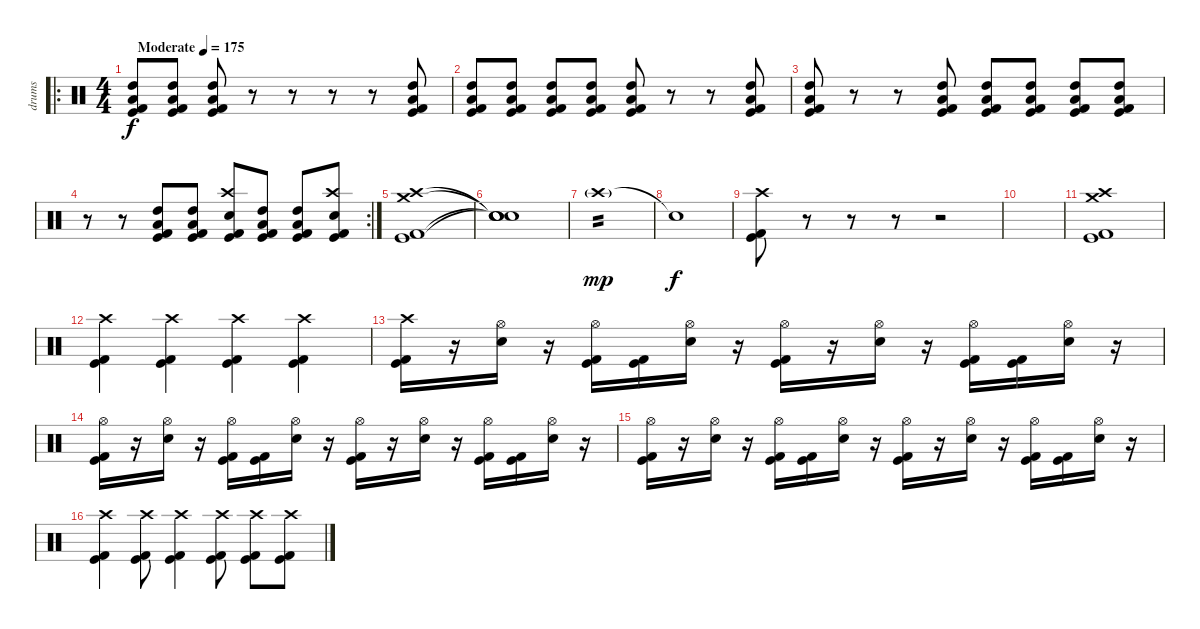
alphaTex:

\track ("drums" "drums") {instrument percussion}
\staff {score}
\articulation defaults
\ro
\ts (4 4)
\tempo (175 "Moderate")
\clef neutral
\ks c
("Low Tom (hit)" "High Tom (hit)" "Kick (hit)" "Kick (hit) 2").8{dy f} ("Low Tom (hit)" "High Tom (hit)" "Kick (hit)" "Kick (hit) 2").8 ("Low Tom (hit)" "High Tom (hit)" "Kick (hit)" "Kick (hit) 2").8 r.8 r.8 r.8 r.8 ("Low Tom (hit)" "High Tom (hit)" "Kick (hit)" "Kick (hit) 2").8 |
("Low Tom (hit)" "High Tom (hit)" "Kick (hit)" "Kick (hit) 2").8 ("Low Tom (hit)" "High Tom (hit)" "Kick (hit)" "Kick (hit) 2").8 ("Low Tom (hit)" "High Tom (hit)" "Kick (hit)" "Kick (hit) 2").8 ("Low Tom (hit)" "High Tom (hit)" "Kick (hit)" "Kick (hit) 2").8 ("Low Tom (hit)" "High Tom (hit)" "Kick (hit)" "Kick (hit) 2").8 r.8 r.8 ("Low Tom (hit)" "High Tom (hit)" "Kick (hit)" "Kick (hit) 2").8 |
("Low Tom (hit)" "High Tom (hit)" "Kick (hit)" "Kick (hit) 2").8 r.8 r.8 ("Low Tom (hit)" "High Tom (hit)" "Kick (hit)" "Kick (hit) 2").8 ("Low Tom (hit)" "High Tom (hit)" "Kick (hit)" "Kick (hit) 2").8 ("Low Tom (hit)" "High Tom (hit)" "Kick (hit)" "Kick (hit) 2").8 ("Low Tom (hit)" "High Tom (hit)" "Kick (hit)" "Kick (hit) 2").8 ("Low Tom (hit)" "High Tom (hit)" "Kick (hit)" "Kick (hit) 2").8 |
\rc 2
r.8 r.8 ("Low Tom (hit)" "High Tom (hit)" "Kick (hit)" "Kick (hit) 2").8 ("Low Tom (hit)" "High Tom (hit)" "Kick (hit)" "Kick (hit) 2").8 ("Crash high (hit)" "Electric Snare (hit)" "Kick (hit)" "Kick (hit) 2").8 ("Low Tom (hit)" "High Tom (hit)" "Kick (hit)" "Kick (hit) 2").8 ("Low Tom (hit)" "High Tom (hit)" "Kick (hit)" "Kick (hit) 2").8 ("Crash high (hit)" "Electric Snare (hit)" "Kick (hit)" "Kick (hit) 2").8 |
("Crash medium (hit)" "Crash high (hit)" "Kick (hit)" "Kick (hit) 2").1 |
("Snare (hit)"{t} "Snare (hit)"{t} "Snare (hit)"{t} "Snare (hit)"{t}).1 |
"Crash high (hit)"{g}.1{tp 2 dy mp} |
"Snare (hit)"{t}.1{dy f} |
("Crash high (hit)" "Kick (hit)" "Kick (hit) 2").8 r.8 r.8 r.8 r.2 |
|
("Crash medium (hit)" "Crash high (hit)" "Kick (hit)" "Kick (hit) 2").1 |
("Crash high (hit)" "Kick (hit)" "Kick (hit) 2").4 ("Crash high (hit)" "Kick (hit)" "Kick (hit) 2").4 ("Crash high (hit)" "Kick (hit)" "Kick (hit) 2").4 ("Crash high (hit)" "Kick (hit)" "Kick (hit) 2").4 |
("Crash high (hit)" "Kick (hit)" "Kick (hit) 2").16 r.16 ("Hi-Hat (open)" "Electric Snare (hit)").16 r.16 ("Hi-Hat (open)" "Kick (hit)" "Kick (hit) 2").16 ("Kick (hit)" "Kick (hit) 2").16 ("Hi-Hat (open)" "Electric Snare (hit)").16 r.16 ("Hi-Hat (open)" "Kick (hit)" "Kick (hit) 2").16 r.16 ("Hi-Hat (open)" "Electric Snare (hit)").16 r.16 ("Hi-Hat (open)" "Kick (hit)" "Kick (hit) 2").16 ("Kick (hit)" "Kick (hit) 2").16 ("Hi-Hat (open)" "Electric Snare (hit)").16 r.16 |
("Hi-Hat (open)" "Kick (hit)" "Kick (hit) 2").16 r.16 ("Hi-Hat (open)" "Electric Snare (hit)").16 r.16 ("Hi-Hat (open)" "Kick (hit)" "Kick (hit) 2").16 ("Kick (hit)" "Kick (hit) 2").16 ("Hi-Hat (open)" "Electric Snare (hit)").16 r.16 ("Hi-Hat (open)" "Kick (hit)" "Kick (hit) 2").16 r.16 ("Hi-Hat (open)" "Electric Snare (hit)").16 r.16 ("Hi-Hat (open)" "Kick (hit)" "Kick (hit) 2").16 ("Kick (hit)" "Kick (hit) 2").16 ("Hi-Hat (open)" "Electric Snare (hit)").16 r.16 |
("Hi-Hat (open)" "Kick (hit)" "Kick (hit) 2").16 r.16 ("Hi-Hat (open)" "Electric Snare (hit)").16 r.16 ("Hi-Hat (open)" "Kick (hit)" "Kick (hit) 2").16 ("Kick (hit)" "Kick (hit) 2").16 ("Hi-Hat (open)" "Electric Snare (hit)").16 r.16 ("Hi-Hat (open)" "Kick (hit)" "Kick (hit) 2").16 r.16 ("Hi-Hat (open)" "Electric Snare (hit)").16 r.16 ("Hi-Hat (open)" "Kick (hit)" "Kick (hit) 2").16 ("Kick (hit)" "Kick (hit) 2").16 ("Hi-Hat (open)" "Electric Snare (hit)").16 r.16 |
("Crash high (hit)" "Kick (hit)" "Kick (hit) 2").4 ("Crash high (hit)" "Kick (hit)" "Kick (hit) 2").8 ("Crash high (hit)" "Kick (hit)" "Kick (hit) 2").4 ("Crash high (hit)" "Kick (hit)" "Kick (hit) 2").8 ("Crash high (hit)" "Kick (hit)" "Kick (hit) 2").8 ("Crash high (hit)" "Kick (hit)" "Kick (hit) 2").8
